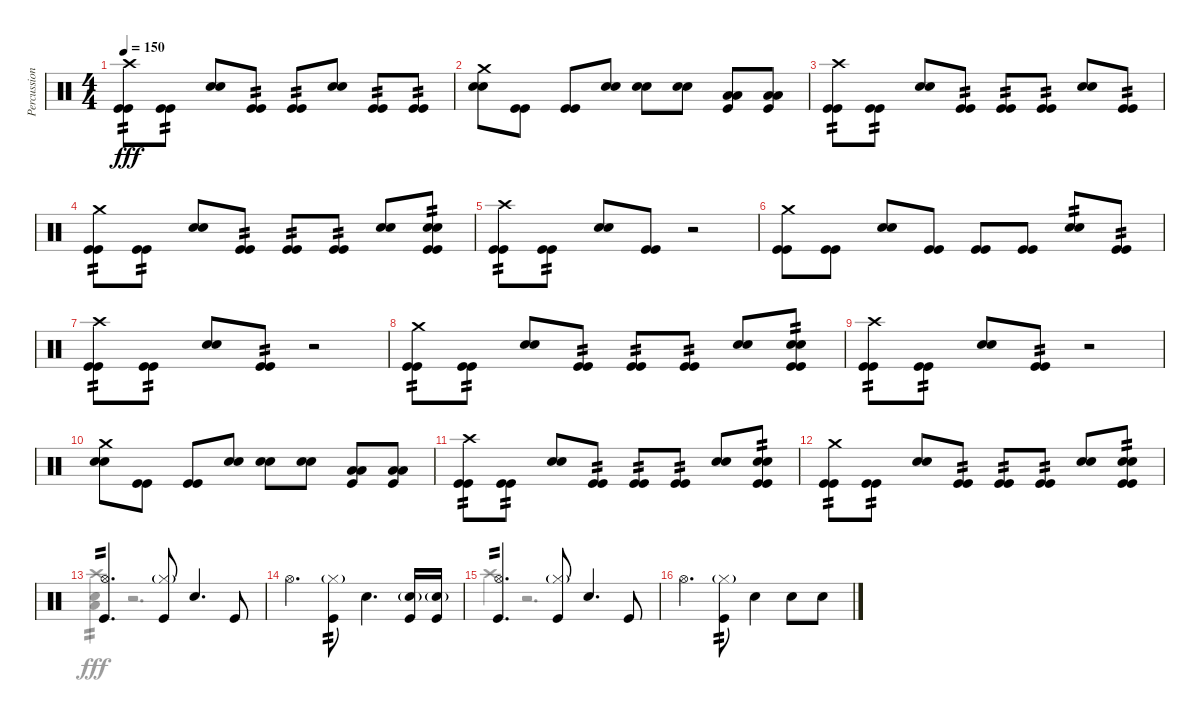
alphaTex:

\track ("Percussion" "Percussion") {instrument percussion}
\staff {score}
\articulation defaults
\voice
\ts (4 4)
\tempo 150
\clef neutral
\ks c
("Crash high (hit)" "Kick (hit)" "Kick (hit)").8{tp 2 dy fff} ("Kick (hit)" "Kick (hit)").8{tp 2} ("Snare (hit) 2" "Snare (hit) 2").8 ("Kick (hit)" "Kick (hit)").8{tp 2} ("Kick (hit)" "Kick (hit)").8{tp 2} ("Snare (hit) 2" "Snare (hit) 2").8 ("Kick (hit)" "Kick (hit)").8{tp 2} ("Kick (hit)" "Kick (hit)").8{tp 2} |
("Crash medium (hit)" "Snare (hit) 2" "Snare (hit) 2").8 ("Kick (hit)" "Kick (hit)").8 ("Kick (hit)" "Kick (hit)").8 ("Snare (hit) 2" "Snare (hit) 2").8 ("Snare (hit) 2" "Snare (hit) 2").8 ("Snare (hit) 2" "Snare (hit) 2").8 ("Low Floor Tom (hit)" "Low Floor Tom (hit)" "Kick (hit)").8 ("Low Floor Tom (hit)" "Low Floor Tom (hit)" "Kick (hit)").8 |
("Crash high (hit)" "Kick (hit)" "Kick (hit)").8{tp 2} ("Kick (hit)" "Kick (hit)").8{tp 2} ("Snare (hit) 2" "Snare (hit) 2").8 ("Kick (hit)" "Kick (hit)").8{tp 2} ("Kick (hit)" "Kick (hit)").8{tp 2} ("Kick (hit)" "Kick (hit)").8{tp 2} ("Snare (hit) 2" "Snare (hit) 2").8 ("Kick (hit)" "Kick (hit)").8{tp 2} |
("Crash medium (hit)" "Kick (hit)" "Kick (hit)").8{tp 2} ("Kick (hit)" "Kick (hit)").8{tp 2} ("Snare (hit) 2" "Snare (hit) 2").8 ("Kick (hit)" "Kick (hit)").8{tp 2} ("Kick (hit)" "Kick (hit)").8{tp 2} ("Kick (hit)" "Kick (hit)").8{tp 2} ("Snare (hit) 2" "Snare (hit) 2").8 ("Snare (hit) 2" "Snare (hit) 2" "Kick (hit)" "Kick (hit)").8{tp 2} |
("Crash high (hit)" "Kick (hit)" "Kick (hit)").8{tp 2} ("Kick (hit)" "Kick (hit)").8{tp 2} ("Snare (hit) 2" "Snare (hit) 2").8 ("Kick (hit)" "Kick (hit)").8 r.2 |
("Crash medium (hit)" "Kick (hit)" "Kick (hit)").8 ("Kick (hit)" "Kick (hit)").8 ("Snare (hit) 2" "Snare (hit) 2").8 ("Kick (hit)" "Kick (hit)").8 ("Kick (hit)" "Kick (hit)").8 ("Kick (hit)" "Kick (hit)").8 ("Snare (hit) 2" "Snare (hit) 2").8{tp 2} ("Kick (hit)" "Kick (hit)").8{tp 2} |
("Crash high (hit)" "Kick (hit)" "Kick (hit)").8{tp 2} ("Kick (hit)" "Kick (hit)").8{tp 2} ("Snare (hit) 2" "Snare (hit) 2").8 ("Kick (hit)" "Kick (hit)").8{tp 2} r.2 |
("Crash medium (hit)" "Kick (hit)" "Kick (hit)").8{tp 2} ("Kick (hit)" "Kick (hit)").8{tp 2} ("Snare (hit) 2" "Snare (hit) 2").8 ("Kick (hit)" "Kick (hit)").8{tp 2} ("Kick (hit)" "Kick (hit)").8{tp 2} ("Kick (hit)" "Kick (hit)").8{tp 2} ("Snare (hit) 2" "Snare (hit) 2").8 ("Snare (hit) 2" "Snare (hit) 2" "Kick (hit)" "Kick (hit)").8{tp 2} |
("Crash high (hit)" "Kick (hit)" "Kick (hit)").8{tp 2} ("Kick (hit)" "Kick (hit)").8{tp 2} ("Snare (hit) 2" "Snare (hit) 2").8 ("Kick (hit)" "Kick (hit)").8{tp 2} r.2 |
("Crash medium (hit)" "Snare (hit) 2" "Snare (hit) 2").8 ("Kick (hit)" "Kick (hit)").8 ("Kick (hit)" "Kick (hit)").8 ("Snare (hit) 2" "Snare (hit) 2").8 ("Snare (hit) 2" "Snare (hit) 2").8 ("Snare (hit) 2" "Snare (hit) 2").8 ("Low Floor Tom (hit)" "Low Floor Tom (hit)" "Kick (hit)").8 ("Low Floor Tom (hit)" "Low Floor Tom (hit)" "Kick (hit)").8 |
("Crash high (hit)" "Kick (hit)" "Kick (hit)").8{tp 2} ("Kick (hit)" "Kick (hit)").8{tp 2} ("Snare (hit) 2" "Snare (hit) 2").8 ("Kick (hit)" "Kick (hit)").8{tp 2} ("Kick (hit)" "Kick (hit)").8{tp 2} ("Kick (hit)" "Kick (hit)").8{tp 2} ("Snare (hit) 2" "Snare (hit) 2").8 ("Snare (hit) 2" "Snare (hit) 2" "Kick (hit)" "Kick (hit)").8{tp 2} |
("Crash medium (hit)" "Kick (hit)" "Kick (hit)").8{tp 2} ("Kick (hit)" "Kick (hit)").8{tp 2} ("Snare (hit) 2" "Snare (hit) 2").8 ("Kick (hit)" "Kick (hit)").8{tp 2} ("Kick (hit)" "Kick (hit)").8{tp 2} ("Kick (hit)" "Kick (hit)").8{tp 2} ("Snare (hit) 2" "Snare (hit) 2").8 ("Snare (hit) 2" "Snare (hit) 2" "Kick (hit)" "Kick (hit)").8{tp 2} |
("Hi-Hat (open)" "Kick (hit)").4{d tp 2} ("Hi-Hat (closed)"{g} "Kick (hit)").8 "Snare (hit) 2".4{d} "Kick (hit)".8 |
"Hi-Hat (open)".4{d} ("Hi-Hat (closed)"{g} "Kick (hit)").8{tp 2} "Snare (hit) 2".4{d} ("Snare (hit) 2"{g} "Kick (hit)").16 ("Snare (hit) 2"{g} "Kick (hit)").16 |
("Hi-Hat (open)" "Kick (hit)").4{d tp 2} ("Hi-Hat (closed)"{g} "Kick (hit)").8 "Snare (hit) 2".4{d} "Kick (hit)".8 |
"Hi-Hat (open)".4{d} ("Hi-Hat (closed)"{g} "Kick (hit)").8{tp 2} "Snare (hit) 2".4 "Snare (hit) 2".8 "Snare (hit) 2".8
\voice
\clef neutral
\ottava regular
\simile none
\ks c
|
|
|
|
|
|
|
|
|
|
|
|
("Crash high (hit)" "Snare (hit) 2" "Low Floor Tom (hit)").4{tp 2} r.2{d} |
|
"Crash high (hit)".4 r.2{d} |
